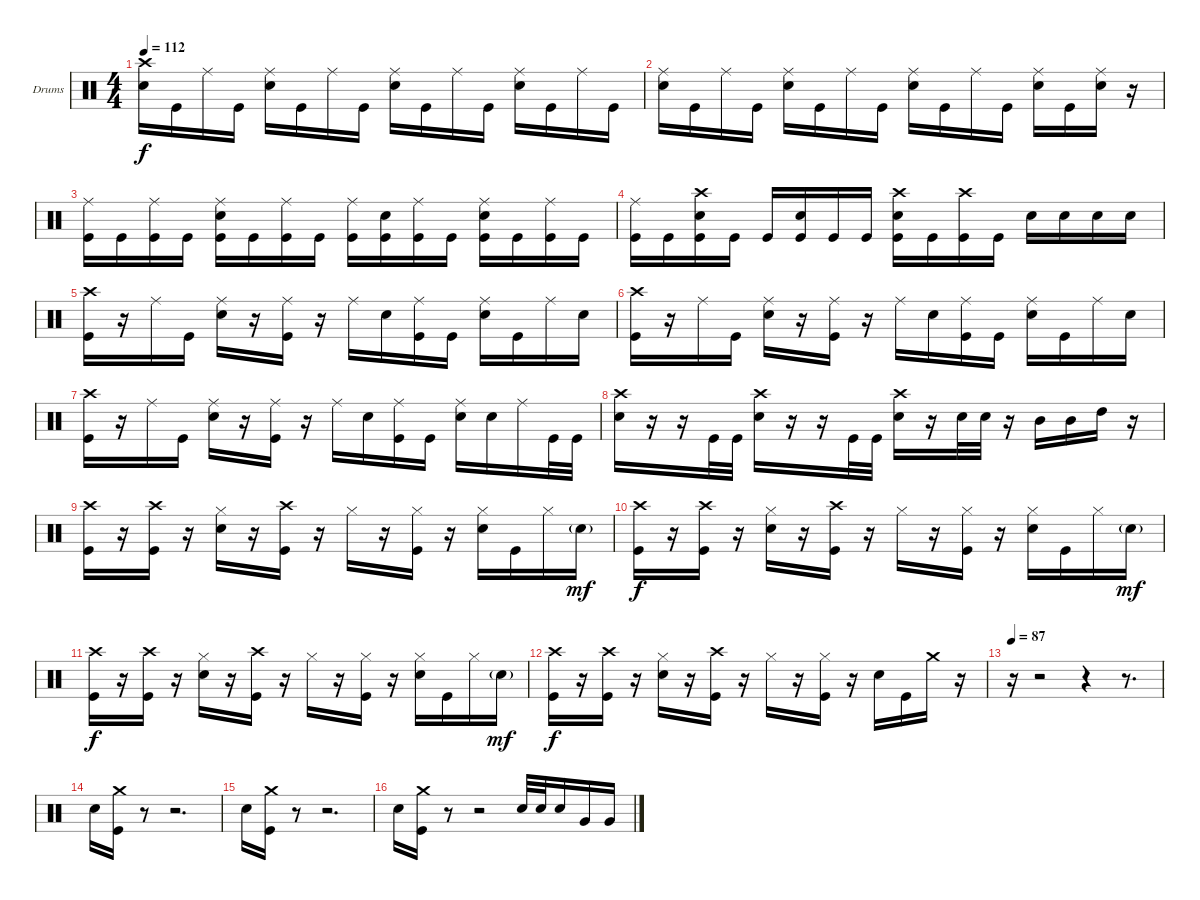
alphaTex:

\bracketExtendMode groupsimilarinstruments
\firstSystemTrackNameOrientation horizontal
\otherSystemsTrackNameOrientation horizontal
\track ("Drumkit" "Drums") {instrument percussion}
\staff {score}
\articulation defaults
\ts (4 4)
\tempo 112
\clef neutral
\ks c
("Crash high (hit)" "Snare (hit) 2").16{dy f} "Kick (hit)".16 "Ride (middle)".16 "Kick (hit)".16 ("Ride (middle)" "Snare (hit) 2").16 "Kick (hit)".16 "Ride (middle)".16 "Kick (hit)".16 ("Ride (middle)" "Snare (hit) 2").16 "Kick (hit)".16 "Ride (middle)".16 "Kick (hit)".16 ("Ride (middle)" "Snare (hit) 2").16 "Kick (hit)".16 "Ride (middle)".16 "Kick (hit)".16 |
("Ride (middle)" "Snare (hit) 2").16 "Kick (hit)".16 "Ride (middle)".16 "Kick (hit)".16 ("Ride (middle)" "Snare (hit) 2").16 "Kick (hit)".16 "Ride (middle)".16 "Kick (hit)".16 ("Ride (middle)" "Snare (hit) 2").16 "Kick (hit)".16 "Ride (middle)".16 "Kick (hit)".16 ("Ride (middle)" "Snare (hit) 2").16 "Kick (hit)".16 ("Ride (middle)" "Snare (hit) 2").16 r.16 |
("Ride (middle)" "Kick (hit)").16 "Kick (hit)".16 ("Ride (middle)" "Kick (hit)").16 "Kick (hit)".16 ("Ride (middle)" "Snare (hit) 2" "Kick (hit)").16 "Kick (hit)".16 ("Ride (middle)" "Kick (hit)").16 "Kick (hit)".16 ("Ride (middle)" "Kick (hit)").16 ("Snare (hit) 2" "Kick (hit)").16 ("Ride (middle)" "Kick (hit)").16 "Kick (hit)".16 ("Ride (middle)" "Snare (hit) 2" "Kick (hit)").16 "Kick (hit)".16 ("Ride (middle)" "Kick (hit)").16 "Kick (hit)".16 |
("Ride (middle)" "Kick (hit)").16 "Kick (hit)".16 ("Crash high (hit)" "Snare (hit) 2" "Kick (hit)").16 "Kick (hit)".16 "Kick (hit)".16 ("Snare (hit) 2" "Kick (hit)").16 "Kick (hit)".16 "Kick (hit)".16 ("Crash high (hit)" "Snare (hit) 2" "Kick (hit)").16 "Kick (hit)".16 ("Crash high (hit)" "Kick (hit)").16 "Kick (hit)".16 "Snare (hit) 2".16 "Snare (hit) 2".16 "Snare (hit) 2".16 "Snare (hit) 2".16 |
("Crash high (hit)" "Kick (hit)").16 r.16 "Ride (middle)".16 "Kick (hit)".16 ("Ride (middle)" "Snare (hit) 2").16 r.16 ("Ride (middle)" "Kick (hit)").16 r.16 "Ride (middle)".16 "Snare (hit) 2".16 ("Ride (middle)" "Kick (hit)").16 "Kick (hit)".16 ("Ride (middle)" "Snare (hit) 2").16 "Kick (hit)".16 "Ride (middle)".16 "Snare (hit) 2".16 |
("Crash high (hit)" "Kick (hit)").16 r.16 "Ride (middle)".16 "Kick (hit)".16 ("Ride (middle)" "Snare (hit) 2").16 r.16 ("Ride (middle)" "Kick (hit)").16 r.16 "Ride (middle)".16 "Snare (hit) 2".16 ("Ride (middle)" "Kick (hit)").16 "Kick (hit)".16 ("Ride (middle)" "Snare (hit) 2").16 "Kick (hit)".16 "Ride (middle)".16 "Snare (hit) 2".16 |
("Crash high (hit)" "Kick (hit)").16 r.16 "Ride (middle)".16 "Kick (hit)".16 ("Ride (middle)" "Snare (hit) 2").16 r.16 ("Ride (middle)" "Kick (hit)").16 r.16 "Ride (middle)".16 "Snare (hit) 2".16 ("Ride (middle)" "Kick (hit)").16 "Kick (hit)".16 ("Ride (middle)" "Snare (hit) 2").16 "Snare (hit) 2".16 "Ride (middle)".16 "Kick (hit)".32 "Kick (hit)".32 |
("Crash high (hit)" "Snare (hit) 2").16 r.16 r.16 "Kick (hit)".32 "Kick (hit)".32 ("Crash high (hit)" "Snare (hit) 2").16 r.16 r.16 "Kick (hit)".32 "Kick (hit)".32 ("Crash high (hit)" "Snare (hit) 2").16 r.16 "Snare (hit) 2".32 "Snare (hit) 2".32 r.16 "Mid Tom (hit)".16 "Mid Tom (hit)".16 "High Tom (hit)".16 r.16 |
("Crash high (hit)" "Kick (hit)").16 r.16 ("Crash high (hit)" "Kick (hit)").16 r.16 ("Hi-Hat (closed)" "Snare (hit) 2").16 r.16 ("Crash high (hit)" "Kick (hit)").16 r.16 "Hi-Hat (closed)".16 r.16 ("Hi-Hat (closed)" "Kick (hit)").16 r.16 ("Hi-Hat (closed)" "Snare (hit) 2").16 "Kick (hit)".16 "Hi-Hat (closed)".16 "Snare (hit) 2"{g}.16{dy mf} |
("Crash high (hit)" "Kick (hit)").16{dy f} r.16 ("Crash high (hit)" "Kick (hit)").16 r.16 ("Hi-Hat (closed)" "Snare (hit) 2").16 r.16 ("Crash high (hit)" "Kick (hit)").16 r.16 "Hi-Hat (closed)".16 r.16 ("Hi-Hat (closed)" "Kick (hit)").16 r.16 ("Hi-Hat (closed)" "Snare (hit) 2").16 "Kick (hit)".16 "Hi-Hat (closed)".16 "Snare (hit) 2"{g}.16{dy mf} |
("Crash high (hit)" "Kick (hit)").16{dy f} r.16 ("Crash high (hit)" "Kick (hit)").16 r.16 ("Hi-Hat (closed)" "Snare (hit) 2").16 r.16 ("Crash high (hit)" "Kick (hit)").16 r.16 "Hi-Hat (closed)".16 r.16 ("Hi-Hat (closed)" "Kick (hit)").16 r.16 ("Hi-Hat (closed)" "Snare (hit) 2").16 "Kick (hit)".16 "Hi-Hat (closed)".16 "Snare (hit) 2"{g}.16{dy mf} |
("Crash high (hit)" "Kick (hit)").16{dy f} r.16 ("Crash high (hit)" "Kick (hit)").16 r.16 ("Hi-Hat (closed)" "Snare (hit) 2").16 r.16 ("Crash high (hit)" "Kick (hit)").16 r.16 "Hi-Hat (closed)".16 r.16 ("Hi-Hat (closed)" "Kick (hit)").16 r.16 "Snare (hit) 2".16 "Kick (hit)".16 "Crash medium (hit)".16 r.16 |
\tempo 87
r.16 r.2 r.4 r.8{d} |
"Snare (hit) 2".16 ("Crash medium (hit)" "Kick (hit)").16 r.8 r.2{d} |
"Snare (hit) 2".16 ("Crash medium (hit)" "Kick (hit)").16 r.8 r.2{d} |
"Snare (hit) 2".16 ("Crash medium (hit)" "Kick (hit)").16 r.8 r.2 "Snare (hit) 2".32 "Snare (hit) 2".32 "Snare (hit) 2".16 "Very Low Tom (hit)".16 "Very Low Tom (hit)".16
